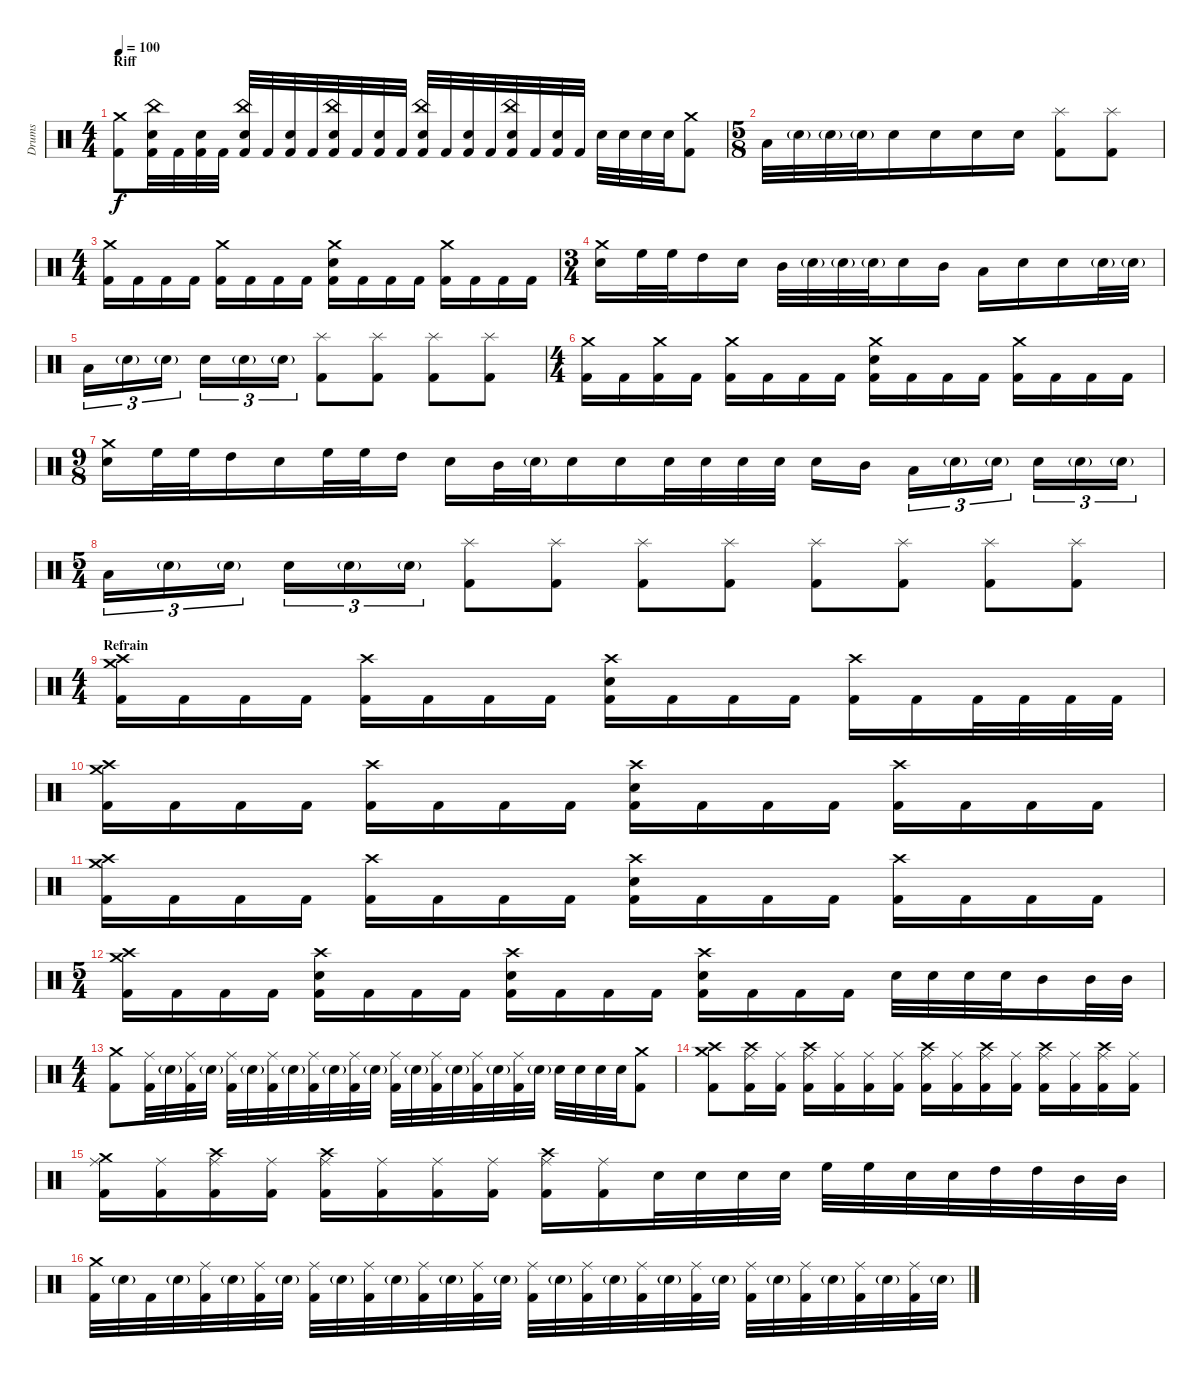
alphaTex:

\track ("Drums" "Drums") {instrument percussion}
\staff {score}
\articulation defaults
\ts (4 4)
\section ("" "Riff")
\tempo 100
\clef neutral
\ks c
("Crash medium (hit)" "Kick (hit) 2").8{dy f} ("China (hit)" "Snare (hit) 2" "Kick (hit) 2").32 "Kick (hit) 2".32 ("Snare (hit) 2" "Kick (hit) 2").32 "Kick (hit) 2".32 ("China (hit)" "Snare (hit) 2" "Kick (hit) 2").32 "Kick (hit) 2".32 ("Snare (hit) 2" "Kick (hit) 2").32 "Kick (hit) 2".32 ("China (hit)" "Snare (hit) 2" "Kick (hit) 2").32 "Kick (hit) 2".32 ("Snare (hit) 2" "Kick (hit) 2").32 "Kick (hit) 2".32 ("China (hit)" "Snare (hit) 2" "Kick (hit) 2").32 "Kick (hit) 2".32 ("Snare (hit) 2" "Kick (hit) 2").32 "Kick (hit) 2".32 ("China (hit)" "Snare (hit) 2" "Kick (hit) 2").32 "Kick (hit) 2".32 ("Snare (hit) 2" "Kick (hit) 2").32 "Kick (hit) 2".32 "Snare (hit) 2".32 "Snare (hit) 2".32 "Snare (hit) 2".32 "Snare (hit) 2".32 ("Crash medium (hit)" "Kick (hit) 2").8 |
\ts (5 8)
"Low Tom (hit)".32 "Snare (hit) 2"{g}.32 "Snare (hit) 2"{g}.32 "Snare (hit) 2"{g}.32 "Snare (hit) 2".16 "Snare (hit) 2".16 "Snare (hit) 2".16 "Snare (hit) 2".16 ("Splash (hit)" "Kick (hit) 2").8 ("Splash (hit)" "Kick (hit) 2").8 |
\ts (4 4)
("Crash medium (hit)" "Kick (hit) 2").16 "Kick (hit) 2".16 "Kick (hit) 2".16 "Kick (hit) 2".16 ("Crash medium (hit)" "Kick (hit) 2").16 "Kick (hit) 2".16 "Kick (hit) 2".16 "Kick (hit) 2".16 ("Crash medium (hit)" "Snare (hit) 2" "Kick (hit) 2").16 "Kick (hit) 2".16 "Kick (hit) 2".16 "Kick (hit) 2".16 ("Crash medium (hit)" "Kick (hit) 2").16 "Kick (hit) 2".16 "Kick (hit) 2".16 "Kick (hit) 2".16 |
\ts (3 4)
("Crash medium (hit)" "Snare (hit) 2").16 "High Floor Tom (hit)".32 "High Floor Tom (hit)".32 "High Tom (hit)".16 "Snare (hit) 2".16 "Mid Tom (hit)".32 "Snare (hit) 2"{g}.32 "Snare (hit) 2"{g}.32 "Snare (hit) 2"{g}.32 "Snare (hit) 2".16 "Mid Tom (hit)".16 "Low Tom (hit)".16 "Snare (hit) 2".16 "Snare (hit) 2".16 "Snare (hit) 2"{g}.32 "Snare (hit) 2"{g}.32 |
"Low Tom (hit)".16{tu (3 2)} "Snare (hit) 2"{g}.16{tu (3 2)} "Snare (hit) 2"{g}.16{tu (3 2)} "Snare (hit) 2".16{tu (3 2)} "Snare (hit) 2"{g}.16{tu (3 2)} "Snare (hit) 2"{g}.16{tu (3 2)} ("Splash (hit)" "Kick (hit) 2").8 ("Splash (hit)" "Kick (hit) 2").8 ("Splash (hit)" "Kick (hit) 2").8 ("Splash (hit)" "Kick (hit) 2").8 |
\ts (4 4)
("Crash medium (hit)" "Kick (hit) 2").16 "Kick (hit) 2".16 ("Crash medium (hit)" "Kick (hit) 2").16 "Kick (hit) 2".16 ("Crash medium (hit)" "Kick (hit) 2").16 "Kick (hit) 2".16 "Kick (hit) 2".16 "Kick (hit) 2".16 ("Crash medium (hit)" "Snare (hit) 2" "Kick (hit) 2").16 "Kick (hit) 2".16 "Kick (hit) 2".16 "Kick (hit) 2".16 ("Crash medium (hit)" "Kick (hit) 2").16 "Kick (hit) 2".16 "Kick (hit) 2".16 "Kick (hit) 2".16 |
\ts (9 8)
("Crash medium (hit)" "Snare (hit) 2").16 "High Floor Tom (hit)".32 "High Floor Tom (hit)".32 "High Tom (hit)".16 "Snare (hit) 2".16 "High Floor Tom (hit)".32 "High Floor Tom (hit)".32 "High Tom (hit)".16 "Snare (hit) 2".16 "Mid Tom (hit)".32 "Snare (hit) 2"{g}.32 "Snare (hit) 2".16 "Snare (hit) 2".16 "Snare (hit) 2".32 "Snare (hit) 2".32 "Snare (hit) 2".32 "Snare (hit) 2".32 "Snare (hit) 2".16 "Mid Tom (hit)".16 "Low Tom (hit)".16{tu (3 2)} "Snare (hit) 2"{g}.16{tu (3 2)} "Snare (hit) 2"{g}.16{tu (3 2)} "Snare (hit) 2".16{tu (3 2)} "Snare (hit) 2"{g}.16{tu (3 2)} "Snare (hit) 2"{g}.16{tu (3 2)} |
\ts (5 4)
"Low Tom (hit)".16{tu (3 2)} "Snare (hit) 2"{g}.16{tu (3 2)} "Snare (hit) 2"{g}.16{tu (3 2)} "Snare (hit) 2".16{tu (3 2)} "Snare (hit) 2"{g}.16{tu (3 2)} "Snare (hit) 2"{g}.16{tu (3 2)} ("Splash (hit)" "Kick (hit) 2").8 ("Splash (hit)" "Kick (hit) 2").8 ("Splash (hit)" "Kick (hit) 2").8 ("Splash (hit)" "Kick (hit) 2").8 ("Splash (hit)" "Kick (hit) 2").8 ("Splash (hit)" "Kick (hit) 2").8 ("Splash (hit)" "Kick (hit) 2").8 ("Splash (hit)" "Kick (hit) 2").8 |
\ts (4 4)
\section ("" "Refrain")
("Crash high (hit)" "Crash medium (hit)" "Kick (hit) 2").16 "Kick (hit) 2".16 "Kick (hit) 2".16 "Kick (hit) 2".16 ("Crash high (hit)" "Kick (hit) 2").16 "Kick (hit) 2".16 "Kick (hit) 2".16 "Kick (hit) 2".16 ("Crash high (hit)" "Snare (hit) 2" "Kick (hit) 2").16 "Kick (hit) 2".16 "Kick (hit) 2".16 "Kick (hit) 2".16 ("Crash high (hit)" "Kick (hit) 2").16 "Kick (hit) 2".16 "Kick (hit) 2".32 "Kick (hit) 2".32 "Kick (hit) 2".32 "Kick (hit) 2".32 |
("Crash high (hit)" "Crash medium (hit)" "Kick (hit) 2").16 "Kick (hit) 2".16 "Kick (hit) 2".16 "Kick (hit) 2".16 ("Crash high (hit)" "Kick (hit) 2").16 "Kick (hit) 2".16 "Kick (hit) 2".16 "Kick (hit) 2".16 ("Crash high (hit)" "Snare (hit) 2" "Kick (hit) 2").16 "Kick (hit) 2".16 "Kick (hit) 2".16 "Kick (hit) 2".16 ("Crash high (hit)" "Kick (hit) 2").16 "Kick (hit) 2".16 "Kick (hit) 2".16 "Kick (hit) 2".16 |
("Crash high (hit)" "Crash medium (hit)" "Kick (hit) 2").16 "Kick (hit) 2".16 "Kick (hit) 2".16 "Kick (hit) 2".16 ("Crash high (hit)" "Kick (hit) 2").16 "Kick (hit) 2".16 "Kick (hit) 2".16 "Kick (hit) 2".16 ("Crash high (hit)" "Snare (hit) 2" "Kick (hit) 2").16 "Kick (hit) 2".16 "Kick (hit) 2".16 "Kick (hit) 2".16 ("Crash high (hit)" "Kick (hit) 2").16 "Kick (hit) 2".16 "Kick (hit) 2".16 "Kick (hit) 2".16 |
\ts (5 4)
("Crash high (hit)" "Crash medium (hit)" "Kick (hit) 2").16 "Kick (hit) 2".16 "Kick (hit) 2".16 "Kick (hit) 2".16 ("Crash high (hit)" "Snare (hit) 2" "Kick (hit) 2").16 "Kick (hit) 2".16 "Kick (hit) 2".16 "Kick (hit) 2".16 ("Crash high (hit)" "Snare (hit) 2" "Kick (hit) 2").16 "Kick (hit) 2".16 "Kick (hit) 2".16 "Kick (hit) 2".16 ("Crash high (hit)" "Snare (hit) 2" "Kick (hit) 2").16 "Kick (hit) 2".16 "Kick (hit) 2".16 "Kick (hit) 2".16 "Snare (hit) 2".32 "Snare (hit) 2".32 "Snare (hit) 2".32 "Snare (hit) 2".32 "Mid Tom (hit)".16 "Mid Tom (hit)".32 "Mid Tom (hit)".32 |
\ts (4 4)
("Crash medium (hit)" "Kick (hit) 2").8 ("Ride (middle)" "Kick (hit) 2").32 "Snare (hit) 2"{g}.32 ("Ride (middle)" "Kick (hit) 2").32 "Snare (hit) 2"{g}.32 ("Ride (middle)" "Kick (hit) 2").32 "Snare (hit) 2"{g}.32 ("Ride (middle)" "Kick (hit) 2").32 "Snare (hit) 2"{g}.32 ("Ride (middle)" "Kick (hit) 2").32 "Snare (hit) 2"{g}.32 ("Ride (middle)" "Kick (hit) 2").32 "Snare (hit) 2"{g}.32 ("Ride (middle)" "Kick (hit) 2").32 "Snare (hit) 2"{g}.32 ("Ride (middle)" "Kick (hit) 2").32 "Snare (hit) 2"{g}.32 ("Ride (middle)" "Kick (hit) 2").32 "Snare (hit) 2"{g}.32 ("Ride (middle)" "Kick (hit) 2").32 "Snare (hit) 2"{g}.32 "Snare (hit) 2".32 "Snare (hit) 2".32 "Snare (hit) 2".32 "Snare (hit) 2".32 ("Crash medium (hit)" "Kick (hit) 2").8 |
("Crash high (hit)" "Crash medium (hit)" "Kick (hit) 2").8 ("Crash high (hit)" "Ride (middle)" "Kick (hit) 2").16 ("Ride (middle)" "Kick (hit) 2").16 ("Crash high (hit)" "Ride (middle)" "Kick (hit) 2").16 ("Ride (middle)" "Kick (hit) 2").16 ("Ride (middle)" "Kick (hit) 2").16 ("Ride (middle)" "Kick (hit) 2").16 ("Crash high (hit)" "Ride (middle)" "Kick (hit) 2").16 ("Ride (middle)" "Kick (hit) 2").16 ("Crash high (hit)" "Ride (middle)" "Kick (hit) 2").16 ("Ride (middle)" "Kick (hit) 2").16 ("Crash high (hit)" "Ride (middle)" "Kick (hit) 2").16 ("Ride (middle)" "Kick (hit) 2").16 ("Crash high (hit)" "Ride (middle)" "Kick (hit) 2").16 ("Ride (middle)" "Kick (hit) 2").16 |
("Crash medium (hit)" "Ride (middle)" "Kick (hit) 2").16 ("Ride (middle)" "Kick (hit) 2").16 ("Crash high (hit)" "Ride (middle)" "Kick (hit) 2").16 ("Ride (middle)" "Kick (hit) 2").16 ("Crash high (hit)" "Ride (middle)" "Kick (hit) 2").16 ("Ride (middle)" "Kick (hit) 2").16 ("Ride (middle)" "Kick (hit) 2").16 ("Ride (middle)" "Kick (hit) 2").16 ("Crash high (hit)" "Ride (middle)" "Kick (hit) 2").16 ("Ride (middle)" "Kick (hit) 2").16 "Snare (hit) 2".32 "Snare (hit) 2".32 "Snare (hit) 2".32 "Snare (hit) 2".32 "High Floor Tom (hit)".32 "High Floor Tom (hit)".32 "Snare (hit) 2".32 "Snare (hit) 2".32 "High Tom (hit)".32 "High Tom (hit)".32 "Mid Tom (hit)".32 "Mid Tom (hit)".32 |
("Crash medium (hit)" "Kick (hit) 2").32 "Snare (hit) 2"{g}.32 "Kick (hit) 2".32 "Snare (hit) 2"{g}.32 ("Ride (middle)" "Kick (hit) 2").32 "Snare (hit) 2"{g}.32 ("Ride (middle)" "Kick (hit) 2").32 "Snare (hit) 2"{g}.32 ("Ride (middle)" "Kick (hit) 2").32 "Snare (hit) 2"{g}.32 ("Ride (middle)" "Kick (hit) 2").32 "Snare (hit) 2"{g}.32 ("Ride (middle)" "Kick (hit) 2").32 "Snare (hit) 2"{g}.32 ("Ride (middle)" "Kick (hit) 2").32 "Snare (hit) 2"{g}.32 ("Ride (middle)" "Kick (hit) 2").32 "Snare (hit) 2"{g}.32 ("Ride (middle)" "Kick (hit) 2").32 "Snare (hit) 2"{g}.32 ("Ride (middle)" "Kick (hit) 2").32 "Snare (hit) 2"{g}.32 ("Ride (middle)" "Kick (hit) 2").32 "Snare (hit) 2"{g}.32 ("Ride (middle)" "Kick (hit) 2").32 "Snare (hit) 2"{g}.32 ("Ride (middle)" "Kick (hit) 2").32 "Snare (hit) 2"{g}.32 ("Ride (middle)" "Kick (hit) 2").32 "Snare (hit) 2"{g}.32 ("Ride (middle)" "Kick (hit) 2").32 "Snare (hit) 2"{g}.32
